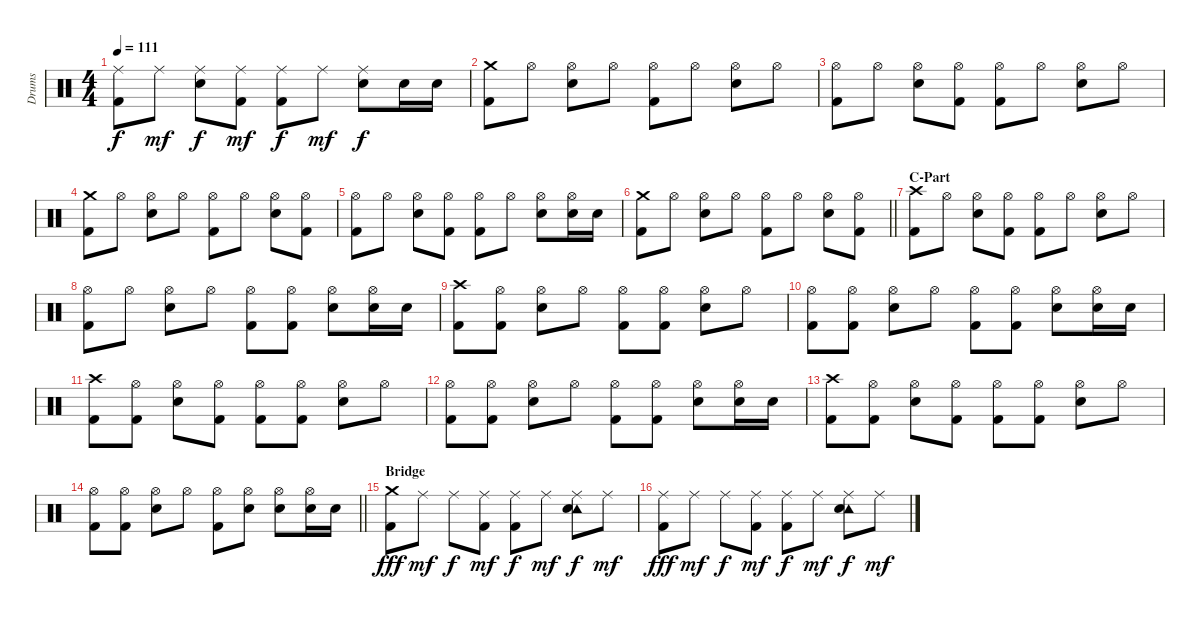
\track ("Drums" "Drums") {instrument percussion}
\staff {score}
\articulation defaults
\ts (4 4)
\tempo 111
\clef neutral
\ks c
("Ride (middle)" "Kick (hit) 2").8{dy f} "Ride (middle)".8{dy mf} ("Ride (middle)" "Snare (hit) 2").8{dy f} ("Ride (middle)" "Kick (hit) 2").8{dy mf} ("Ride (middle)" "Kick (hit) 2").8{dy f} "Ride (middle)".8{dy mf} ("Ride (middle)" "Snare (hit) 2").8{dy f} "Snare (hit) 2".16 "Snare (hit) 2".16 |
("Crash medium (hit)" "Kick (hit) 2").8 "Hi-Hat (open)".8 ("Hi-Hat (open)" "Snare (hit) 2").8 "Hi-Hat (open)".8 ("Hi-Hat (open)" "Kick (hit) 2").8 "Hi-Hat (open)".8 ("Hi-Hat (open)" "Snare (hit) 2").8 "Hi-Hat (open)".8 |
("Hi-Hat (open)" "Kick (hit) 2").8 "Hi-Hat (open)".8 ("Hi-Hat (open)" "Snare (hit) 2").8 ("Hi-Hat (open)" "Kick (hit) 2").8 ("Hi-Hat (open)" "Kick (hit) 2").8 "Hi-Hat (open)".8 ("Hi-Hat (open)" "Snare (hit) 2").8 "Hi-Hat (open)".8 |
("Crash medium (hit)" "Kick (hit) 2").8 "Hi-Hat (open)".8 ("Hi-Hat (open)" "Snare (hit) 2").8 "Hi-Hat (open)".8 ("Hi-Hat (open)" "Kick (hit) 2").8 "Hi-Hat (open)".8 ("Hi-Hat (open)" "Snare (hit) 2").8 ("Hi-Hat (open)" "Kick (hit) 2").8 |
("Hi-Hat (open)" "Kick (hit) 2").8 "Hi-Hat (open)".8 ("Hi-Hat (open)" "Snare (hit) 2").8 ("Hi-Hat (open)" "Kick (hit) 2").8 ("Hi-Hat (open)" "Kick (hit) 2").8 "Hi-Hat (open)".8 ("Hi-Hat (open)" "Snare (hit) 2").8 ("Hi-Hat (open)" "Snare (hit) 2").16 "Snare (hit) 2".16 |
\barLineRight lightlight
("Crash medium (hit)" "Kick (hit) 2").8 "Hi-Hat (open)".8 ("Hi-Hat (open)" "Snare (hit) 2").8 "Hi-Hat (open)".8 ("Hi-Hat (open)" "Kick (hit) 2").8 "Hi-Hat (open)".8 ("Hi-Hat (open)" "Snare (hit) 2").8 ("Hi-Hat (open)" "Kick (hit) 2").8 |
\section ("" "C-Part")
("Crash high (hit)" "Kick (hit) 2").8 "Hi-Hat (open)".8 ("Hi-Hat (open)" "Snare (hit) 2").8 ("Hi-Hat (open)" "Kick (hit) 2").8 ("Hi-Hat (open)" "Kick (hit) 2").8 "Hi-Hat (open)".8 ("Hi-Hat (open)" "Snare (hit) 2").8 "Hi-Hat (open)".8 |
("Hi-Hat (open)" "Kick (hit) 2").8 "Hi-Hat (open)".8 ("Hi-Hat (open)" "Snare (hit) 2").8 "Hi-Hat (open)".8 ("Hi-Hat (open)" "Kick (hit) 2").8 ("Hi-Hat (open)" "Kick (hit) 2").8 ("Hi-Hat (open)" "Snare (hit) 2").8 ("Hi-Hat (open)" "Snare (hit) 2").16 "Snare (hit) 2".16 |
("Crash high (hit)" "Kick (hit) 2").8 ("Hi-Hat (open)" "Kick (hit) 2").8 ("Hi-Hat (open)" "Snare (hit) 2").8 "Hi-Hat (open)".8 ("Hi-Hat (open)" "Kick (hit) 2").8 ("Hi-Hat (open)" "Kick (hit) 2").8 ("Hi-Hat (open)" "Snare (hit) 2").8 "Hi-Hat (open)".8 |
("Hi-Hat (open)" "Kick (hit) 2").8 ("Hi-Hat (open)" "Kick (hit) 2").8 ("Hi-Hat (open)" "Snare (hit) 2").8 "Hi-Hat (open)".8 ("Hi-Hat (open)" "Kick (hit) 2").8 ("Hi-Hat (open)" "Kick (hit) 2").8 ("Hi-Hat (open)" "Snare (hit) 2").8 ("Hi-Hat (open)" "Snare (hit) 2").16 "Snare (hit) 2".16 |
("Crash high (hit)" "Kick (hit) 2").8 ("Hi-Hat (open)" "Kick (hit) 2").8 ("Hi-Hat (open)" "Snare (hit) 2").8 ("Hi-Hat (open)" "Kick (hit) 2").8 ("Hi-Hat (open)" "Kick (hit) 2").8 ("Hi-Hat (open)" "Kick (hit) 2").8 ("Hi-Hat (open)" "Snare (hit) 2").8 "Hi-Hat (open)".8 |
("Hi-Hat (open)" "Kick (hit) 2").8 ("Hi-Hat (open)" "Kick (hit) 2").8 ("Hi-Hat (open)" "Snare (hit) 2").8 "Hi-Hat (open)".8 ("Hi-Hat (open)" "Kick (hit) 2").8 ("Hi-Hat (open)" "Kick (hit) 2").8 ("Hi-Hat (open)" "Snare (hit) 2").8 ("Hi-Hat (open)" "Snare (hit) 2").16 "Snare (hit) 2".16 |
("Crash high (hit)" "Kick (hit) 2").8 ("Hi-Hat (open)" "Kick (hit) 2").8 ("Hi-Hat (open)" "Snare (hit) 2").8 ("Hi-Hat (open)" "Kick (hit) 2").8 ("Hi-Hat (open)" "Kick (hit) 2").8 ("Hi-Hat (open)" "Kick (hit) 2").8 ("Hi-Hat (open)" "Snare (hit) 2").8 "Hi-Hat (open)".8 |
\barLineRight lightlight
("Hi-Hat (open)" "Kick (hit) 2").8 ("Hi-Hat (open)" "Kick (hit) 2").8 ("Hi-Hat (open)" "Snare (hit) 2").8 "Hi-Hat (open)".8 ("Hi-Hat (open)" "Kick (hit) 2").8 ("Hi-Hat (open)" "Snare (hit) 2").8 ("Hi-Hat (open)" "Snare (hit) 2").8 ("Hi-Hat (open)" "Snare (hit) 2").16 "Snare (hit) 2".16 |
\section ("" "Bridge")
("Crash medium (hit)" "Kick (hit) 2").8{dy fff} "Ride (middle)".8{dy mf} "Ride (middle)".8{dy f} ("Ride (middle)" "Kick (hit) 2").8{dy mf} ("Ride (middle)" "Kick (hit) 2").8{dy f} "Ride (middle)".8{dy mf} ("Ride (middle)" "Tambourine (hit)" "Snare (hit) 2").8{dy f} "Ride (middle)".8{dy mf} |
("Ride (middle)" "Kick (hit) 2").8{dy fff} "Ride (middle)".8{dy mf} "Ride (middle)".8{dy f} ("Ride (middle)" "Kick (hit) 2").8{dy mf} ("Ride (middle)" "Kick (hit) 2").8{dy f} "Ride (middle)".8{dy mf} ("Ride (middle)" "Tambourine (hit)" "Snare (hit) 2").8{dy f} "Ride (middle)".8{dy mf}
